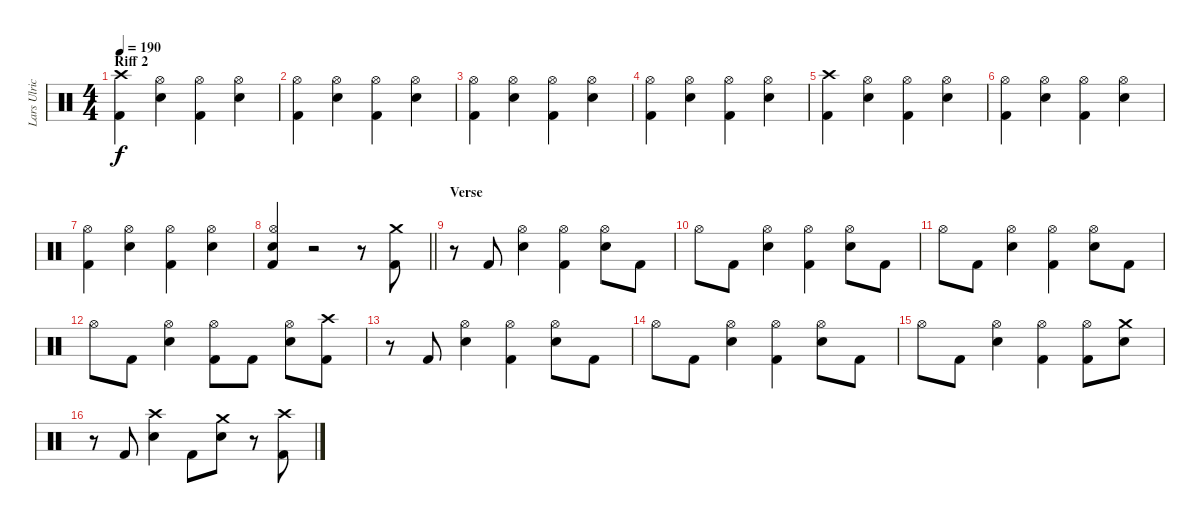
\track ("Lars Ulrich" "Lars Ulric") {instrument percussion}
\staff {score}
\articulation defaults
\ts (4 4)
\section ("" "Riff 2")
\tempo 190
\clef neutral
\ks c
("Crash high (hit)" "Kick (hit) 2").4{dy f} ("Hi-Hat (open)" "Snare (hit) 2").4 ("Hi-Hat (open)" "Kick (hit) 2").4 ("Hi-Hat (open)" "Snare (hit) 2").4 |
("Hi-Hat (open)" "Kick (hit) 2").4 ("Hi-Hat (open)" "Snare (hit) 2").4 ("Hi-Hat (open)" "Kick (hit) 2").4 ("Hi-Hat (open)" "Snare (hit) 2").4 |
("Hi-Hat (open)" "Kick (hit) 2").4 ("Hi-Hat (open)" "Snare (hit) 2").4 ("Hi-Hat (open)" "Kick (hit) 2").4 ("Hi-Hat (open)" "Snare (hit) 2").4 |
("Hi-Hat (open)" "Kick (hit) 2").4 ("Hi-Hat (open)" "Snare (hit) 2").4 ("Hi-Hat (open)" "Kick (hit) 2").4 ("Hi-Hat (open)" "Snare (hit) 2").4 |
("Crash high (hit)" "Kick (hit) 2").4 ("Hi-Hat (open)" "Snare (hit) 2").4 ("Hi-Hat (open)" "Kick (hit) 2").4 ("Hi-Hat (open)" "Snare (hit) 2").4 |
("Hi-Hat (open)" "Kick (hit) 2").4 ("Hi-Hat (open)" "Snare (hit) 2").4 ("Hi-Hat (open)" "Kick (hit) 2").4 ("Hi-Hat (open)" "Snare (hit) 2").4 |
("Hi-Hat (open)" "Kick (hit) 2").4 ("Hi-Hat (open)" "Snare (hit) 2").4 ("Hi-Hat (open)" "Kick (hit) 2").4 ("Hi-Hat (open)" "Snare (hit) 2").4 |
\barLineRight lightlight
("Hi-Hat (open)" "Snare (hit) 2" "Kick (hit) 2").4 r.2 r.8 ("Crash medium (hit)" "Kick (hit) 2").8 |
\section ("" "Verse")
r.8 "Kick (hit) 2".8 ("Hi-Hat (open)" "Snare (hit) 2").4 ("Hi-Hat (open)" "Kick (hit) 2").4 ("Hi-Hat (open)" "Snare (hit) 2").8 "Kick (hit) 2".8 |
"Hi-Hat (open)".8 "Kick (hit) 2".8 ("Hi-Hat (open)" "Snare (hit) 2").4 ("Hi-Hat (open)" "Kick (hit) 2").4 ("Hi-Hat (open)" "Snare (hit) 2").8 "Kick (hit) 2".8 |
"Hi-Hat (open)".8 "Kick (hit) 2".8 ("Hi-Hat (open)" "Snare (hit) 2").4 ("Hi-Hat (open)" "Kick (hit) 2").4 ("Hi-Hat (open)" "Snare (hit) 2").8 "Kick (hit) 2".8 |
"Hi-Hat (open)".8 "Kick (hit) 2".8 ("Hi-Hat (open)" "Snare (hit) 2").4 ("Hi-Hat (open)" "Kick (hit) 2").8 "Kick (hit) 2".8 ("Hi-Hat (open)" "Snare (hit) 2").8 ("Crash high (hit)" "Kick (hit) 2").8 |
r.8 "Kick (hit) 2".8 ("Hi-Hat (open)" "Snare (hit) 2").4 ("Hi-Hat (open)" "Kick (hit) 2").4 ("Hi-Hat (open)" "Snare (hit) 2").8 "Kick (hit) 2".8 |
"Hi-Hat (open)".8 "Kick (hit) 2".8 ("Hi-Hat (open)" "Snare (hit) 2").4 ("Hi-Hat (open)" "Kick (hit) 2").4 ("Hi-Hat (open)" "Snare (hit) 2").8 "Kick (hit) 2".8 |
"Hi-Hat (open)".8 "Kick (hit) 2".8 ("Hi-Hat (open)" "Snare (hit) 2").4 ("Hi-Hat (open)" "Kick (hit) 2").4 ("Hi-Hat (open)" "Kick (hit) 2").8 ("Crash medium (hit)" "Snare (hit) 2").8 |
r.8 "Kick (hit) 2".8 ("Crash high (hit)" "Snare (hit) 2").4 "Kick (hit) 2".8 ("Crash medium (hit)" "Snare (hit) 2").8 r.8 ("Crash high (hit)" "Kick (hit) 2").8
